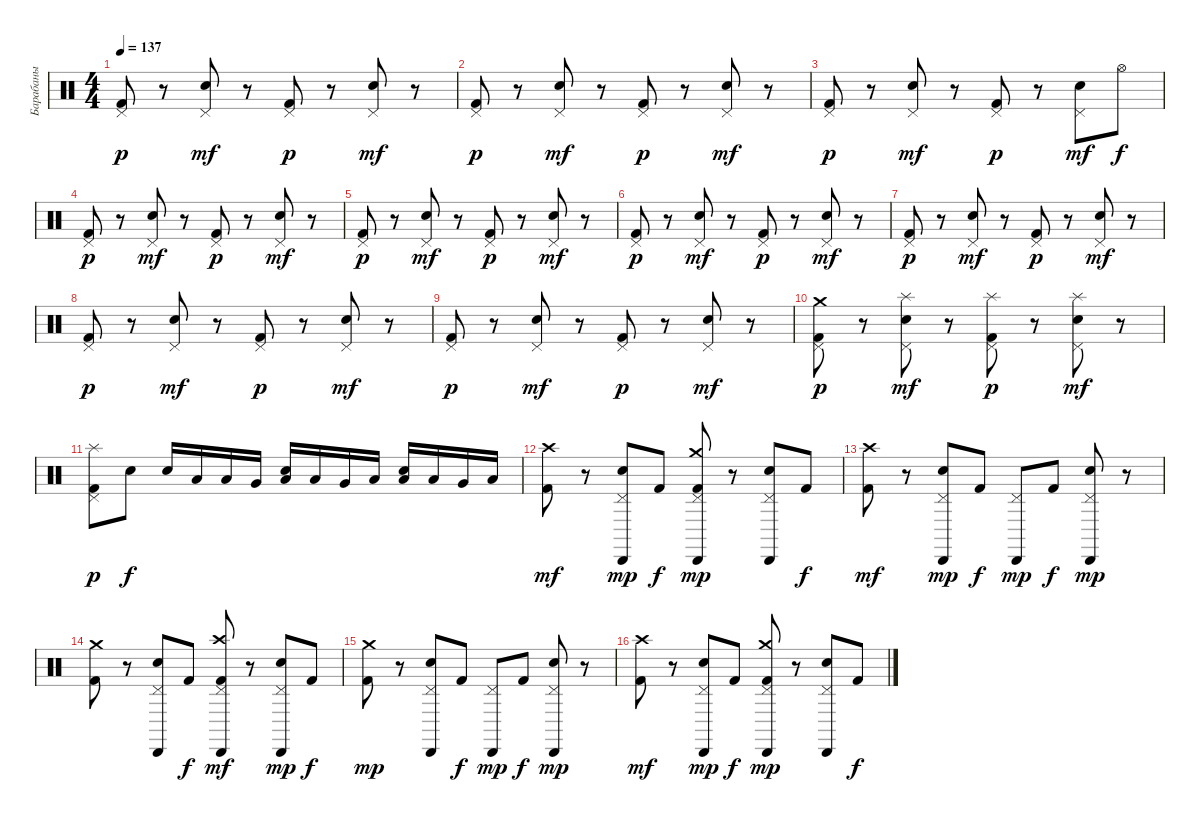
\track ("Барабаны" "Барабаны") {instrument percussion}
\staff {score}
\articulation defaults
\ts (4 4)
\tempo 137
\clef neutral
\ks c
("Pedal Hi-Hat (hit)" "Kick (hit) 2").8{dy p} r.8 ("Pedal Hi-Hat (hit)" "Electric Snare (hit)").8{dy mf} r.8 ("Pedal Hi-Hat (hit)" "Kick (hit) 2").8{dy p} r.8 ("Pedal Hi-Hat (hit)" "Electric Snare (hit)").8{dy mf} r.8 |
("Pedal Hi-Hat (hit)" "Kick (hit) 2").8{dy p} r.8 ("Pedal Hi-Hat (hit)" "Electric Snare (hit)").8{dy mf} r.8 ("Pedal Hi-Hat (hit)" "Kick (hit) 2").8{dy p} r.8 ("Pedal Hi-Hat (hit)" "Electric Snare (hit)").8{dy mf} r.8 |
("Pedal Hi-Hat (hit)" "Kick (hit) 2").8{dy p} r.8 ("Pedal Hi-Hat (hit)" "Electric Snare (hit)").8{dy mf} r.8 ("Pedal Hi-Hat (hit)" "Kick (hit) 2").8{dy p} r.8 ("Pedal Hi-Hat (hit)" "Electric Snare (hit)").8{dy mf} "Hi-Hat (open)".8{dy f} |
("Pedal Hi-Hat (hit)" "Kick (hit) 2").8{dy p} r.8 ("Pedal Hi-Hat (hit)" "Electric Snare (hit)").8{dy mf} r.8 ("Pedal Hi-Hat (hit)" "Kick (hit) 2").8{dy p} r.8 ("Pedal Hi-Hat (hit)" "Electric Snare (hit)").8{dy mf} r.8 |
("Pedal Hi-Hat (hit)" "Kick (hit) 2").8{dy p} r.8 ("Pedal Hi-Hat (hit)" "Electric Snare (hit)").8{dy mf} r.8 ("Pedal Hi-Hat (hit)" "Kick (hit) 2").8{dy p} r.8 ("Pedal Hi-Hat (hit)" "Electric Snare (hit)").8{dy mf} r.8 |
("Pedal Hi-Hat (hit)" "Kick (hit) 2").8{dy p} r.8 ("Pedal Hi-Hat (hit)" "Electric Snare (hit)").8{dy mf} r.8 ("Pedal Hi-Hat (hit)" "Kick (hit) 2").8{dy p} r.8 ("Pedal Hi-Hat (hit)" "Electric Snare (hit)").8{dy mf} r.8 |
("Pedal Hi-Hat (hit)" "Kick (hit) 2").8{dy p} r.8 ("Pedal Hi-Hat (hit)" "Electric Snare (hit)").8{dy mf} r.8 ("Pedal Hi-Hat (hit)" "Kick (hit) 2").8{dy p} r.8 ("Pedal Hi-Hat (hit)" "Electric Snare (hit)").8{dy mf} r.8 |
("Pedal Hi-Hat (hit)" "Kick (hit) 2").8{dy p} r.8 ("Pedal Hi-Hat (hit)" "Electric Snare (hit)").8{dy mf} r.8 ("Pedal Hi-Hat (hit)" "Kick (hit) 2").8{dy p} r.8 ("Pedal Hi-Hat (hit)" "Electric Snare (hit)").8{dy mf} r.8 |
("Pedal Hi-Hat (hit)" "Kick (hit) 2").8{dy p} r.8 ("Pedal Hi-Hat (hit)" "Electric Snare (hit)").8{dy mf} r.8 ("Pedal Hi-Hat (hit)" "Kick (hit) 2").8{dy p} r.8 ("Pedal Hi-Hat (hit)" "Electric Snare (hit)").8{dy mf} r.8 |
("Crash medium (hit)" "Pedal Hi-Hat (hit)" "Kick (hit) 2").8{dy p} r.8 ("Splash (hit)" "Pedal Hi-Hat (hit)" "Electric Snare (hit)").8{dy mf} r.8 ("Splash (hit)" "Pedal Hi-Hat (hit)" "Kick (hit) 2").8{dy p} r.8 ("Splash (hit)" "Pedal Hi-Hat (hit)" "Electric Snare (hit)").8{dy mf} r.8 |
("Splash (hit)" "Pedal Hi-Hat (hit)" "Kick (hit) 2").8{dy p} "Electric Snare (hit)".8{dy f} "Electric Snare (hit)".16 "Low Tom (hit)".16 "Low Tom (hit)".16 "Very Low Tom (hit)".16 ("Low Tom (hit)" "Electric Snare (hit)").16 "Low Tom (hit)".16 "Very Low Tom (hit)".16 "Low Floor Tom (hit)".16 ("Low Tom (hit)" "Electric Snare (hit)").16 "Low Tom (hit)".16 "Very Low Tom (hit)".16 "Low Floor Tom (hit)".16 |
("Crash high (hit)" "Kick (hit) 2").8{dy mf} r.8 ("Cabasa (hit)" "Pedal Hi-Hat (hit)" "Electric Snare (hit)").8{dy mp} "Kick (hit) 2".8{dy f} ("Cabasa (hit)" "Crash medium (hit)" "Pedal Hi-Hat (hit)" "Kick (hit) 2").8{dy mp} r.8 ("Cabasa (hit)" "Pedal Hi-Hat (hit)" "Electric Snare (hit)").8 "Kick (hit) 2".8{dy f} |
("Crash high (hit)" "Kick (hit) 2").8{dy mf} r.8 ("Cabasa (hit)" "Pedal Hi-Hat (hit)" "Electric Snare (hit)").8{dy mp} "Kick (hit) 2".8{dy f} ("Cabasa (hit)" "Pedal Hi-Hat (hit)").8{dy mp} "Kick (hit) 2".8{dy f} ("Cabasa (hit)" "Pedal Hi-Hat (hit)" "Electric Snare (hit)").8{dy mp} r.8 |
("Crash medium (hit)" "Kick (hit) 2").8 r.8 ("Cabasa (hit)" "Pedal Hi-Hat (hit)" "Electric Snare (hit)").8 "Kick (hit) 2".8{dy f} ("Cabasa (hit)" "Crash high (hit)" "Pedal Hi-Hat (hit)" "Kick (hit) 2").8{dy mf} r.8 ("Cabasa (hit)" "Pedal Hi-Hat (hit)" "Electric Snare (hit)").8{dy mp} "Kick (hit) 2".8{dy f} |
("Crash medium (hit)" "Kick (hit) 2").8{dy mp} r.8 ("Cabasa (hit)" "Pedal Hi-Hat (hit)" "Electric Snare (hit)").8 "Kick (hit) 2".8{dy f} ("Cabasa (hit)" "Pedal Hi-Hat (hit)").8{dy mp} "Kick (hit) 2".8{dy f} ("Cabasa (hit)" "Pedal Hi-Hat (hit)" "Electric Snare (hit)").8{dy mp} r.8 |
("Crash high (hit)" "Kick (hit) 2").8{dy mf} r.8 ("Cabasa (hit)" "Pedal Hi-Hat (hit)" "Electric Snare (hit)").8{dy mp} "Kick (hit) 2".8{dy f} ("Cabasa (hit)" "Crash medium (hit)" "Pedal Hi-Hat (hit)" "Kick (hit) 2").8{dy mp} r.8 ("Cabasa (hit)" "Pedal Hi-Hat (hit)" "Electric Snare (hit)").8 "Kick (hit) 2".8{dy f}
